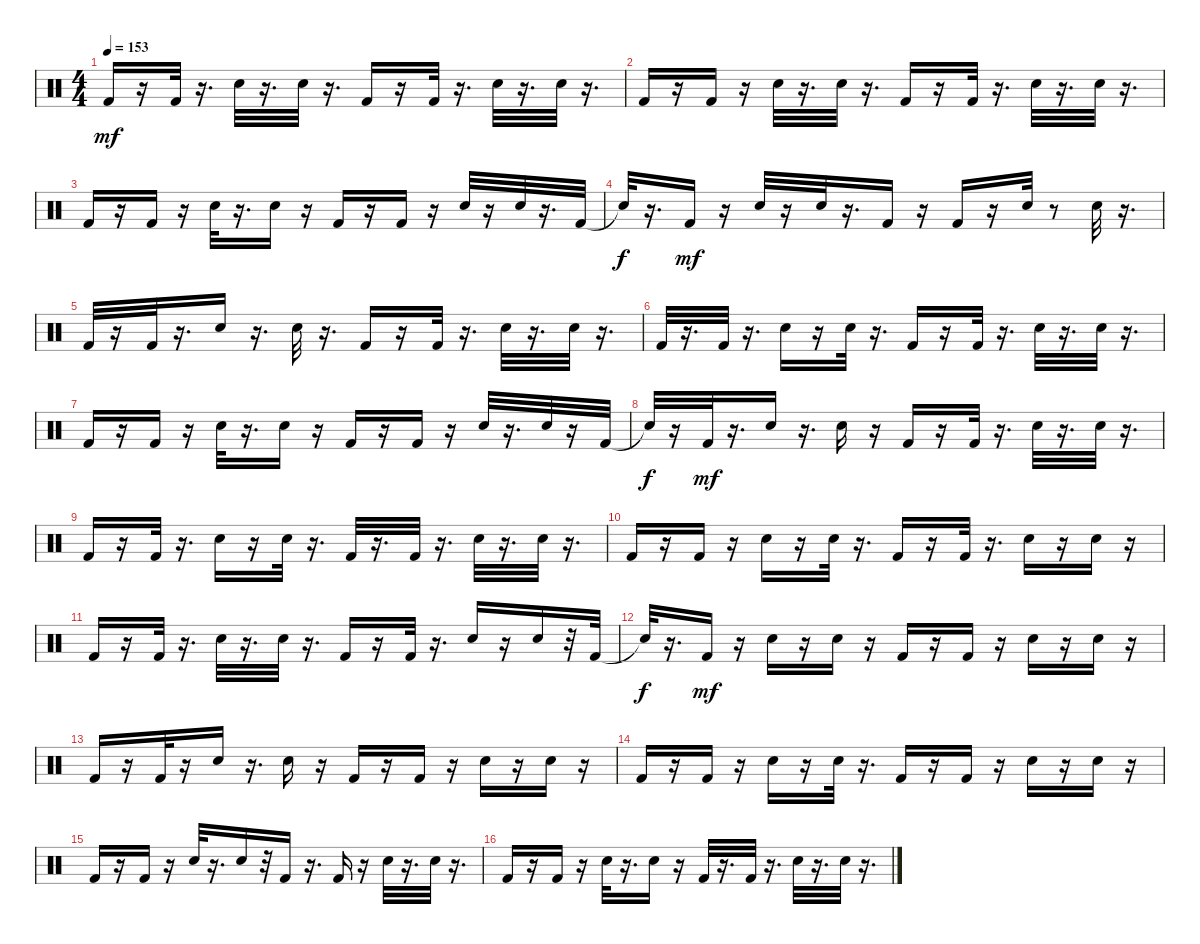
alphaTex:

\track "" {instrument percussion}
\staff {score}
\articulation defaults
\ts (4 4)
\tempo 153
\clef neutral
\ks c "Kick (hit) 2".16{dy mf}
r.16 "Kick (hit) 2".32 r.16{d} "Snare (hit) 2".32 r.16{d} "Snare (hit) 2".32 r.16{d} "Kick (hit) 2".16 r.16 "Kick (hit) 2".32 r.16{d} "Snare (hit) 2".32 r.16{d} "Snare (hit) 2".32 r.16{d} |
"Kick (hit) 2".16 r.16 "Kick (hit) 2".16 r.16 "Snare (hit) 2".32 r.16{d} "Snare (hit) 2".32 r.16{d} "Kick (hit) 2".16 r.16 "Kick (hit) 2".32 r.16{d} "Snare (hit) 2".32 r.16{d} "Snare (hit) 2".32 r.16{d} |
"Kick (hit) 2".16 r.16 "Kick (hit) 2".16 r.16 "Snare (hit) 2".32 r.16{d} "Snare (hit) 2".16 r.16 "Kick (hit) 2".16 r.16 "Kick (hit) 2".16 r.16 "Snare (hit) 2".32 r.16 "Snare (hit) 2".32 r.16{d} "Kick (hit) 2".32 |
"Snare (hit)"{t}.32{dy f} r.16{d} "Kick (hit) 2".16{dy mf} r.16 "Snare (hit) 2".32 r.16 "Snare (hit) 2".32 r.16{d} "Kick (hit) 2".16 r.16 "Kick (hit) 2".16 r.16 "Snare (hit) 2".32 r.8 "Snare (hit) 2".32 r.16{d} |
"Kick (hit) 2".32 r.16 "Kick (hit) 2".32 r.16{d} "Snare (hit) 2".16 r.16{d} "Snare (hit) 2".32 r.16{d} "Kick (hit) 2".16 r.16 "Kick (hit) 2".32 r.16{d} "Snare (hit) 2".32 r.16{d} "Snare (hit) 2".32 r.16{d} |
"Kick (hit) 2".32 r.16{d} "Kick (hit) 2".32 r.16{d} "Snare (hit) 2".16 r.16 "Snare (hit) 2".32 r.16{d} "Kick (hit) 2".16 r.16 "Kick (hit) 2".32 r.16{d} "Snare (hit) 2".32 r.16{d} "Snare (hit) 2".32 r.16{d} |
"Kick (hit) 2".16 r.16 "Kick (hit) 2".16 r.16 "Snare (hit) 2".32 r.16{d} "Snare (hit) 2".16 r.16 "Kick (hit) 2".16 r.16 "Kick (hit) 2".16 r.16 "Snare (hit) 2".32 r.16{d} "Snare (hit) 2".32 r.16 "Kick (hit) 2".32 |
"Snare (hit)"{t}.32{dy f} r.16 "Kick (hit) 2".32{dy mf} r.16{d} "Snare (hit) 2".16 r.16{d} "Snare (hit) 2".16 r.16 "Kick (hit) 2".16 r.16 "Kick (hit) 2".32 r.16{d} "Snare (hit) 2".32 r.16{d} "Snare (hit) 2".32 r.16{d} |
"Kick (hit) 2".16 r.16 "Kick (hit) 2".32 r.16{d} "Snare (hit) 2".16 r.16 "Snare (hit) 2".32 r.16{d} "Kick (hit) 2".32 r.16{d} "Kick (hit) 2".32 r.16{d} "Snare (hit) 2".32 r.16{d} "Snare (hit) 2".32 r.16{d} |
"Kick (hit) 2".16 r.16 "Kick (hit) 2".16 r.16 "Snare (hit) 2".16 r.16 "Snare (hit) 2".32 r.16{d} "Kick (hit) 2".16 r.16 "Kick (hit) 2".32 r.16{d} "Snare (hit) 2".16 r.16 "Snare (hit) 2".16 r.16 |
"Kick (hit) 2".16 r.16 "Kick (hit) 2".32 r.16{d} "Snare (hit) 2".32 r.16{d} "Snare (hit) 2".32 r.16{d} "Kick (hit) 2".16 r.16 "Kick (hit) 2".32 r.16{d} "Snare (hit) 2".16 r.16 "Snare (hit) 2".16 r.32 "Kick (hit) 2".32 |
"Snare (hit)"{t}.32{dy f} r.16{d} "Kick (hit) 2".16{dy mf} r.16 "Snare (hit) 2".16 r.16 "Snare (hit) 2".16 r.16 "Kick (hit) 2".16 r.16 "Kick (hit) 2".16 r.16 "Snare (hit) 2".16 r.16 "Snare (hit) 2".16 r.16 |
"Kick (hit) 2".16 r.16 "Kick (hit) 2".32 r.16 "Snare (hit) 2".16 r.16{d} "Snare (hit) 2".16 r.16 "Kick (hit) 2".16 r.16 "Kick (hit) 2".16 r.16 "Snare (hit) 2".16 r.16 "Snare (hit) 2".16 r.16 |
"Kick (hit) 2".16 r.16 "Kick (hit) 2".16 r.16 "Snare (hit) 2".16 r.16 "Snare (hit) 2".32 r.16{d} "Kick (hit) 2".16 r.16 "Kick (hit) 2".16 r.16 "Snare (hit) 2".16 r.16 "Snare (hit) 2".16 r.16 |
"Kick (hit) 2".16 r.16 "Kick (hit) 2".16 r.16 "Snare (hit) 2".32 r.16{d} "Snare (hit) 2".16 r.32 "Kick (hit) 2".16 r.16{d} "Kick (hit) 2".16 r.16 "Snare (hit) 2".32 r.16{d} "Snare (hit) 2".32 r.16{d} |
"Kick (hit) 2".16 r.16 "Kick (hit) 2".16 r.16 "Snare (hit) 2".32 r.16{d} "Snare (hit) 2".16 r.16 "Kick (hit) 2".32 r.16{d} "Kick (hit) 2".32 r.16{d} "Snare (hit) 2".32 r.16{d} "Snare (hit) 2".32 r.16{d}
